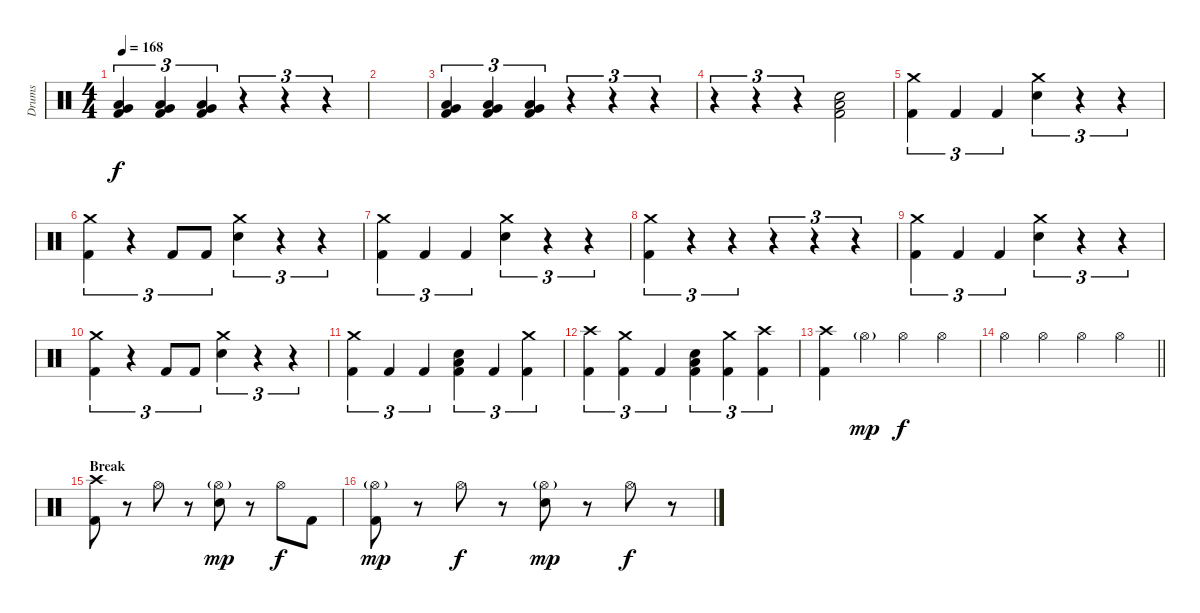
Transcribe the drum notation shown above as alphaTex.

\track ("Drums" "Drums") {instrument percussion}
\staff {score}
\articulation defaults
\ts (4 4)
\tempo 168
\clef neutral
\ks c
("Low Floor Tom (hit)" "Very Low Tom (hit)" "Kick (hit) 2").4{tu (3 2) dy f} ("Low Floor Tom (hit)" "Very Low Tom (hit)" "Kick (hit) 2").4{tu (3 2)} ("Low Floor Tom (hit)" "Very Low Tom (hit)" "Kick (hit) 2").4{tu (3 2)} r.4{tu (3 2)} r.4{tu (3 2)} r.4{tu (3 2)} |
|
("Low Floor Tom (hit)" "Very Low Tom (hit)" "Kick (hit) 2").4{tu (3 2)} ("Low Floor Tom (hit)" "Very Low Tom (hit)" "Kick (hit) 2").4{tu (3 2)} ("Low Floor Tom (hit)" "Very Low Tom (hit)" "Kick (hit) 2").4{tu (3 2)} r.4{tu (3 2)} r.4{tu (3 2)} r.4{tu (3 2)} |
r.4{tu (3 2)} r.4{tu (3 2)} r.4{tu (3 2)} ("Low Floor Tom (hit)" "Snare (hit) 2" "Kick (hit) 2").2 |
("Crash medium (hit)" "Kick (hit) 2").4{tu (3 2)} "Kick (hit) 2".4{tu (3 2)} "Kick (hit) 2".4{tu (3 2)} ("Crash medium (hit)" "Snare (hit) 2").4{tu (3 2)} r.4{tu (3 2)} r.4{tu (3 2)} |
("Crash medium (hit)" "Kick (hit) 2").4{tu (3 2)} r.4{tu (3 2)} "Kick (hit) 2".8{tu (3 2)} "Kick (hit) 2".8{tu (3 2)} ("Crash medium (hit)" "Snare (hit) 2").4{tu (3 2)} r.4{tu (3 2)} r.4{tu (3 2)} |
("Crash medium (hit)" "Kick (hit) 2").4{tu (3 2)} "Kick (hit) 2".4{tu (3 2)} "Kick (hit) 2".4{tu (3 2)} ("Crash medium (hit)" "Snare (hit) 2").4{tu (3 2)} r.4{tu (3 2)} r.4{tu (3 2)} |
("Crash medium (hit)" "Kick (hit) 2").4{tu (3 2)} r.4{tu (3 2)} r.4{tu (3 2)} r.4{tu (3 2)} r.4{tu (3 2)} r.4{tu (3 2)} |
("Crash medium (hit)" "Kick (hit) 2").4{tu (3 2)} "Kick (hit) 2".4{tu (3 2)} "Kick (hit) 2".4{tu (3 2)} ("Crash medium (hit)" "Snare (hit) 2").4{tu (3 2)} r.4{tu (3 2)} r.4{tu (3 2)} |
("Crash medium (hit)" "Kick (hit) 2").4{tu (3 2)} r.4{tu (3 2)} "Kick (hit) 2".8{tu (3 2)} "Kick (hit) 2".8{tu (3 2)} ("Crash medium (hit)" "Snare (hit) 2").4{tu (3 2)} r.4{tu (3 2)} r.4{tu (3 2)} |
("Crash medium (hit)" "Kick (hit) 2").4{tu (3 2)} "Kick (hit) 2".4{tu (3 2)} "Kick (hit) 2".4{tu (3 2)} ("Low Floor Tom (hit)" "Snare (hit) 2" "Kick (hit) 2").4{tu (3 2)} "Kick (hit) 2".4{tu (3 2)} ("Crash medium (hit)" "Kick (hit) 2").4{tu (3 2)} |
("Crash high (hit)" "Kick (hit) 2").4{tu (3 2)} ("Crash medium (hit)" "Kick (hit) 2").4{tu (3 2)} "Kick (hit) 2".4{tu (3 2)} ("Low Floor Tom (hit)" "Snare (hit) 2" "Kick (hit) 2").4{tu (3 2)} ("Crash medium (hit)" "Kick (hit) 2").4{tu (3 2)} ("Crash high (hit)" "Kick (hit) 2").4{tu (3 2)} |
("Crash high (hit)" "Kick (hit) 2").4 "Hi-Hat (open)"{g}.4{dy mp} "Hi-Hat (open)".4{dy f} "Hi-Hat (open)".4 |
\barLineRight lightlight "Hi-Hat (open)".4 "Hi-Hat (open)".4 "Hi-Hat (open)".4 "Hi-Hat (open)".4
|
\section ("" "Break")
("Crash high (hit)" "Kick (hit) 2").8 r.8 "Hi-Hat (open)".8 r.8 ("Hi-Hat (open)"{g} "Snare (hit) 2").8{dy mp} r.8 "Hi-Hat (open)".8{dy f} "Kick (hit) 2".8 |
("Hi-Hat (open)"{g} "Kick (hit) 2").8{dy mp} r.8 "Hi-Hat (open)".8{dy f} r.8 ("Hi-Hat (open)"{g} "Snare (hit) 2").8{dy mp} r.8 "Hi-Hat (open)".8{dy f} r.8
